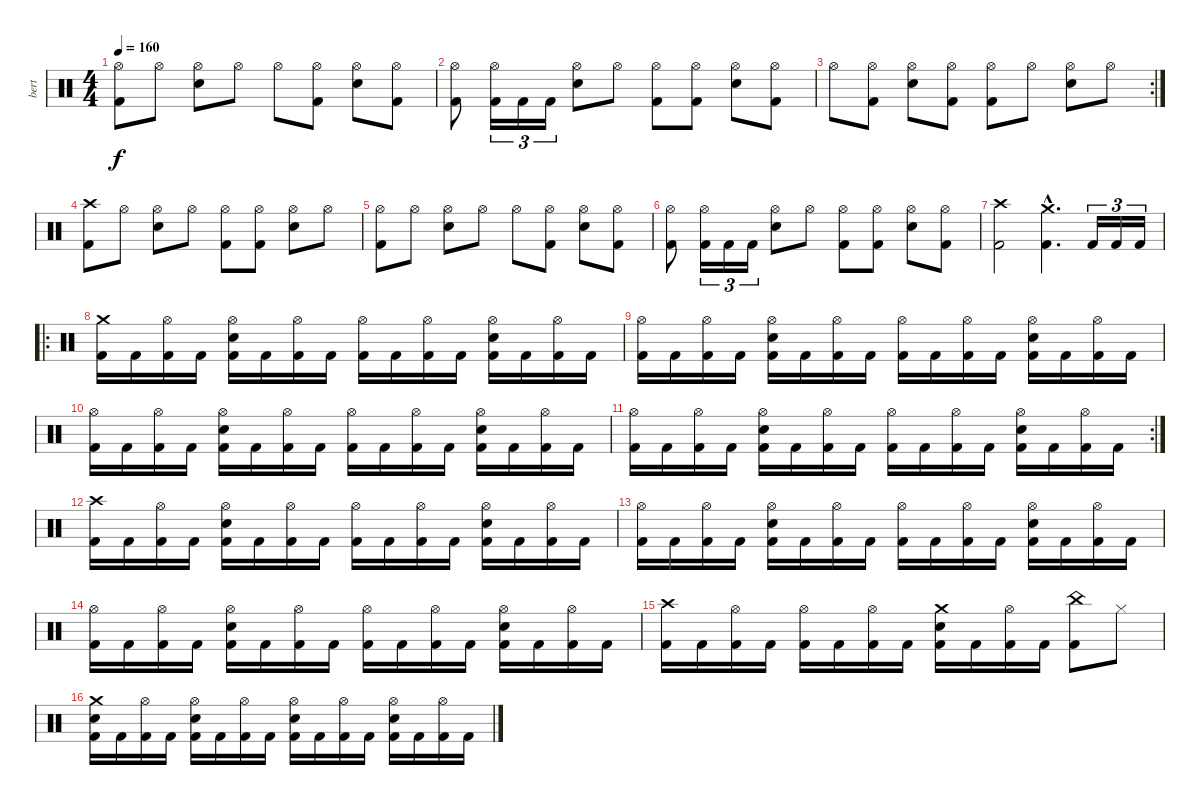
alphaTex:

\track ("bert" "bert") {instrument percussion}
\staff {score}
\articulation defaults
\ts (4 4)
\tempo 160
\clef neutral
\ks c
("Hi-Hat (open)" "Kick (hit) 2").8{dy f} "Hi-Hat (open)".8 ("Hi-Hat (open)" "Snare (hit) 2").8 "Hi-Hat (open)".8 "Hi-Hat (open)".8 ("Hi-Hat (open)" "Kick (hit) 2").8 ("Hi-Hat (open)" "Snare (hit) 2").8 ("Hi-Hat (open)" "Kick (hit) 2").8 |
("Hi-Hat (open)" "Kick (hit) 2").8 ("Hi-Hat (open)" "Kick (hit) 2").16{tu (3 2)} "Kick (hit) 2".16{tu (3 2)} "Kick (hit) 2".16{tu (3 2)} ("Hi-Hat (open)" "Snare (hit) 2").8 "Hi-Hat (open)".8 ("Hi-Hat (open)" "Kick (hit) 2").8 ("Hi-Hat (open)" "Kick (hit) 2").8 ("Hi-Hat (open)" "Snare (hit) 2").8 ("Hi-Hat (open)" "Kick (hit) 2").8 |
\rc 2 "Hi-Hat (open)".8
("Hi-Hat (open)" "Kick (hit) 2").8 ("Hi-Hat (open)" "Snare (hit) 2").8 ("Hi-Hat (open)" "Kick (hit) 2").8 ("Hi-Hat (open)" "Kick (hit) 2").8 "Hi-Hat (open)".8 ("Hi-Hat (open)" "Snare (hit) 2").8 "Hi-Hat (open)".8 |
("Crash high (hit)" "Kick (hit) 2").8 "Hi-Hat (open)".8 ("Hi-Hat (open)" "Snare (hit) 2").8 "Hi-Hat (open)".8 ("Hi-Hat (open)" "Kick (hit) 2").8 ("Hi-Hat (open)" "Kick (hit) 2").8 ("Hi-Hat (open)" "Snare (hit) 2").8 "Hi-Hat (open)".8 |
("Hi-Hat (open)" "Kick (hit) 2").8 "Hi-Hat (open)".8 ("Hi-Hat (open)" "Snare (hit) 2").8 "Hi-Hat (open)".8 "Hi-Hat (open)".8 ("Hi-Hat (open)" "Kick (hit) 2").8 ("Hi-Hat (open)" "Snare (hit) 2").8 ("Hi-Hat (open)" "Kick (hit) 2").8 |
("Hi-Hat (open)" "Kick (hit) 2").8 ("Hi-Hat (open)" "Kick (hit) 2").16{tu (3 2)} "Kick (hit) 2".16{tu (3 2)} "Kick (hit) 2".16{tu (3 2)} ("Hi-Hat (open)" "Snare (hit) 2").8 "Hi-Hat (open)".8 ("Hi-Hat (open)" "Kick (hit) 2").8 ("Hi-Hat (open)" "Kick (hit) 2").8 ("Hi-Hat (open)" "Snare (hit) 2").8 ("Hi-Hat (open)" "Kick (hit) 2").8 |
("Crash high (hit)" "Kick (hit) 2").2 ("Crash medium (hit)"{hac} "Kick (hit) 2"{hac}).4{d} "Kick (hit) 2".16{tu (3 2)} "Kick (hit) 2".16{tu (3 2)} "Kick (hit) 2".16{tu (3 2)} |
\ro
("Crash medium (hit)" "Kick (hit) 2").16 "Kick (hit) 2".16 ("Hi-Hat (open)" "Kick (hit) 2").16 "Kick (hit) 2".16 ("Hi-Hat (open)" "Snare (hit) 2" "Kick (hit) 2").16 "Kick (hit) 2".16 ("Hi-Hat (open)" "Kick (hit) 2").16 "Kick (hit) 2".16 ("Hi-Hat (open)" "Kick (hit) 2").16 "Kick (hit) 2".16 ("Hi-Hat (open)" "Kick (hit) 2").16 "Kick (hit) 2".16 ("Hi-Hat (open)" "Snare (hit) 2" "Kick (hit) 2").16 "Kick (hit) 2".16 ("Hi-Hat (open)" "Kick (hit) 2").16 "Kick (hit) 2".16 |
("Hi-Hat (open)" "Kick (hit) 2").16 "Kick (hit) 2".16 ("Hi-Hat (open)" "Kick (hit) 2").16 "Kick (hit) 2".16 ("Hi-Hat (open)" "Snare (hit) 2" "Kick (hit) 2").16 "Kick (hit) 2".16 ("Hi-Hat (open)" "Kick (hit) 2").16 "Kick (hit) 2".16 ("Hi-Hat (open)" "Kick (hit) 2").16 "Kick (hit) 2".16 ("Hi-Hat (open)" "Kick (hit) 2").16 "Kick (hit) 2".16 ("Hi-Hat (open)" "Snare (hit) 2" "Kick (hit) 2").16 "Kick (hit) 2".16 ("Hi-Hat (open)" "Kick (hit) 2").16 "Kick (hit) 2".16 |
("Hi-Hat (open)" "Kick (hit) 2").16 "Kick (hit) 2".16 ("Hi-Hat (open)" "Kick (hit) 2").16 "Kick (hit) 2".16 ("Hi-Hat (open)" "Snare (hit) 2" "Kick (hit) 2").16 "Kick (hit) 2".16 ("Hi-Hat (open)" "Kick (hit) 2").16 "Kick (hit) 2".16 ("Hi-Hat (open)" "Kick (hit) 2").16 "Kick (hit) 2".16 ("Hi-Hat (open)" "Kick (hit) 2").16 "Kick (hit) 2".16 ("Hi-Hat (open)" "Snare (hit) 2" "Kick (hit) 2").16 "Kick (hit) 2".16 ("Hi-Hat (open)" "Kick (hit) 2").16 "Kick (hit) 2".16 |
\rc 2
("Hi-Hat (open)" "Kick (hit) 2").16 "Kick (hit) 2".16 ("Hi-Hat (open)" "Kick (hit) 2").16 "Kick (hit) 2".16 ("Hi-Hat (open)" "Snare (hit) 2" "Kick (hit) 2").16 "Kick (hit) 2".16 ("Hi-Hat (open)" "Kick (hit) 2").16 "Kick (hit) 2".16 ("Hi-Hat (open)" "Kick (hit) 2").16 "Kick (hit) 2".16 ("Hi-Hat (open)" "Kick (hit) 2").16 "Kick (hit) 2".16 ("Hi-Hat (open)" "Snare (hit) 2" "Kick (hit) 2").16 "Kick (hit) 2".16 ("Hi-Hat (open)" "Kick (hit) 2").16 "Kick (hit) 2".16 |
("Crash high (hit)" "Kick (hit) 2").16 "Kick (hit) 2".16 ("Hi-Hat (open)" "Kick (hit) 2").16 "Kick (hit) 2".16 ("Hi-Hat (open)" "Snare (hit) 2" "Kick (hit) 2").16 "Kick (hit) 2".16 ("Hi-Hat (open)" "Kick (hit) 2").16 "Kick (hit) 2".16 ("Hi-Hat (open)" "Kick (hit) 2").16 "Kick (hit) 2".16 ("Hi-Hat (open)" "Kick (hit) 2").16 "Kick (hit) 2".16 ("Hi-Hat (open)" "Snare (hit) 2" "Kick (hit) 2").16 "Kick (hit) 2".16 ("Hi-Hat (open)" "Kick (hit) 2").16 "Kick (hit) 2".16 |
("Hi-Hat (open)" "Kick (hit) 2").16 "Kick (hit) 2".16 ("Hi-Hat (open)" "Kick (hit) 2").16 "Kick (hit) 2".16 ("Hi-Hat (open)" "Snare (hit) 2" "Kick (hit) 2").16 "Kick (hit) 2".16 ("Hi-Hat (open)" "Kick (hit) 2").16 "Kick (hit) 2".16 ("Hi-Hat (open)" "Kick (hit) 2").16 "Kick (hit) 2".16 ("Hi-Hat (open)" "Kick (hit) 2").16 "Kick (hit) 2".16 ("Hi-Hat (open)" "Snare (hit) 2" "Kick (hit) 2").16 "Kick (hit) 2".16 ("Hi-Hat (open)" "Kick (hit) 2").16 "Kick (hit) 2".16 |
("Hi-Hat (open)" "Kick (hit) 2").16 "Kick (hit) 2".16 ("Hi-Hat (open)" "Kick (hit) 2").16 "Kick (hit) 2".16 ("Hi-Hat (open)" "Snare (hit) 2" "Kick (hit) 2").16 "Kick (hit) 2".16 ("Hi-Hat (open)" "Kick (hit) 2").16 "Kick (hit) 2".16 ("Hi-Hat (open)" "Kick (hit) 2").16 "Kick (hit) 2".16 ("Hi-Hat (open)" "Kick (hit) 2").16 "Kick (hit) 2".16 ("Hi-Hat (open)" "Snare (hit) 2" "Kick (hit) 2").16 "Kick (hit) 2".16 ("Hi-Hat (open)" "Kick (hit) 2").16 "Kick (hit) 2".16 |
("Crash high (hit)" "Kick (hit) 2").16 "Kick (hit) 2".16 ("Hi-Hat (open)" "Kick (hit) 2").16 "Kick (hit) 2".16 ("Hi-Hat (open)" "Kick (hit) 2").16 "Kick (hit) 2".16 ("Hi-Hat (open)" "Kick (hit) 2").16 "Kick (hit) 2".16 ("Crash medium (hit)" "Snare (hit) 2" "Kick (hit) 2").16 "Kick (hit) 2".16 ("Hi-Hat (open)" "Kick (hit) 2").16 "Kick (hit) 2".16 ("China (hit)" "Kick (hit) 2").8 "Hi-Hat (closed)".8 |
("Crash medium (hit)" "Snare (hit) 2" "Kick (hit) 2").16 "Kick (hit) 2".16 ("Hi-Hat (open)" "Kick (hit) 2").16 "Kick (hit) 2".16 ("Hi-Hat (open)" "Snare (hit) 2" "Kick (hit) 2").16 "Kick (hit) 2".16 ("Hi-Hat (open)" "Kick (hit) 2").16 "Kick (hit) 2".16 ("Hi-Hat (open)" "Snare (hit) 2" "Kick (hit) 2").16 "Kick (hit) 2".16 ("Hi-Hat (open)" "Kick (hit) 2").16 "Kick (hit) 2".16 ("Hi-Hat (open)" "Snare (hit) 2" "Kick (hit) 2").16 "Kick (hit) 2".16 ("Hi-Hat (open)" "Kick (hit) 2").16 "Kick (hit) 2".16
